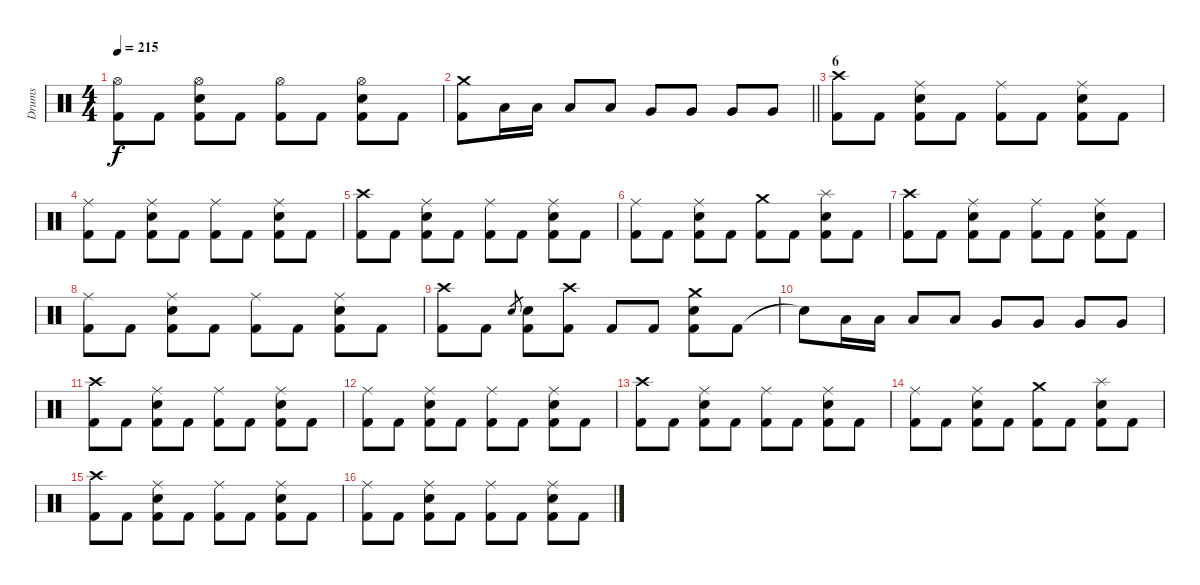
\track ("Drums" "Drums") {instrument percussion}
\staff {score}
\articulation defaults
\ts (4 4)
\tempo 215
\clef neutral
\ks c
("Hi-Hat (open)" "Kick (hit) 2").8{dy f} "Kick (hit) 2".8 ("Hi-Hat (open)" "Electric Snare (hit)" "Kick (hit) 2").8 "Kick (hit) 2".8 ("Hi-Hat (open)" "Kick (hit) 2").8 "Kick (hit) 2".8 ("Hi-Hat (open)" "Electric Snare (hit)" "Kick (hit) 2").8 "Kick (hit) 2".8 |
\barLineRight lightlight
("Crash medium (hit)" "Kick (hit) 2").8 "Low Tom (hit)".16 "Low Tom (hit)".16 "Low Tom (hit)".8 "Low Tom (hit)".8 "Very Low Tom (hit)".8 "Very Low Tom (hit)".8 "Very Low Tom (hit)".8 "Very Low Tom (hit)".8 |
\section ("" "6")
("Crash high (hit)" "Kick (hit) 2").8 "Kick (hit) 2".8 ("Ride (middle)" "Electric Snare (hit)" "Kick (hit) 2").8 "Kick (hit) 2".8 ("Ride (middle)" "Kick (hit) 2").8 "Kick (hit) 2".8 ("Ride (middle)" "Electric Snare (hit)" "Kick (hit) 2").8 "Kick (hit) 2".8 |
("Ride (middle)" "Kick (hit) 2").8 "Kick (hit) 2".8 ("Ride (middle)" "Electric Snare (hit)" "Kick (hit) 2").8 "Kick (hit) 2".8 ("Ride (middle)" "Kick (hit) 2").8 "Kick (hit) 2".8 ("Ride (middle)" "Electric Snare (hit)" "Kick (hit) 2").8 "Kick (hit) 2".8 |
("Crash high (hit)" "Kick (hit) 2").8 "Kick (hit) 2".8 ("Ride (middle)" "Electric Snare (hit)" "Kick (hit) 2").8 "Kick (hit) 2".8 ("Ride (middle)" "Kick (hit) 2").8 "Kick (hit) 2".8 ("Ride (middle)" "Electric Snare (hit)" "Kick (hit) 2").8 "Kick (hit) 2".8 |
("Ride (middle)" "Kick (hit) 2").8 "Kick (hit) 2".8 ("Ride (middle)" "Electric Snare (hit)" "Kick (hit) 2").8 "Kick (hit) 2".8 ("Crash medium (hit)" "Kick (hit) 2").8 "Kick (hit) 2".8 ("Splash (hit)" "Electric Snare (hit)" "Kick (hit) 2").8 "Kick (hit) 2".8 |
("Crash high (hit)" "Kick (hit) 2").8 "Kick (hit) 2".8 ("Ride (middle)" "Electric Snare (hit)" "Kick (hit) 2").8 "Kick (hit) 2".8 ("Ride (middle)" "Kick (hit) 2").8 "Kick (hit) 2".8 ("Ride (middle)" "Electric Snare (hit)" "Kick (hit) 2").8 "Kick (hit) 2".8 |
("Ride (middle)" "Kick (hit) 2").8 "Kick (hit) 2".8 ("Ride (middle)" "Electric Snare (hit)" "Kick (hit) 2").8 "Kick (hit) 2".8 ("Ride (middle)" "Kick (hit) 2").8 "Kick (hit) 2".8 ("Ride (middle)" "Electric Snare (hit)" "Kick (hit) 2").8 "Kick (hit) 2".8 |
("Crash high (hit)" "Kick (hit) 2").8 "Kick (hit) 2".8 "Electric Snare (hit)".8{gr} ("Electric Snare (hit)" "Kick (hit) 2").8 ("Crash high (hit)" "Kick (hit) 2").8 "Kick (hit) 2".8 "Kick (hit) 2".8 ("Crash medium (hit)" "Electric Snare (hit)" "Kick (hit) 2").8 "Kick (hit) 2".8 |
"Snare (hit)"{t}.8 "Low Tom (hit)".16 "Low Tom (hit)".16 "Low Tom (hit)".8 "Low Tom (hit)".8 "Very Low Tom (hit)".8 "Very Low Tom (hit)".8 "Very Low Tom (hit)".8 "Very Low Tom (hit)".8 |
("Crash high (hit)" "Kick (hit) 2").8 "Kick (hit) 2".8 ("Ride (middle)" "Electric Snare (hit)" "Kick (hit) 2").8 "Kick (hit) 2".8 ("Ride (middle)" "Kick (hit) 2").8 "Kick (hit) 2".8 ("Ride (middle)" "Electric Snare (hit)" "Kick (hit) 2").8 "Kick (hit) 2".8 |
("Ride (middle)" "Kick (hit) 2").8 "Kick (hit) 2".8 ("Ride (middle)" "Electric Snare (hit)" "Kick (hit) 2").8 "Kick (hit) 2".8 ("Ride (middle)" "Kick (hit) 2").8 "Kick (hit) 2".8 ("Ride (middle)" "Electric Snare (hit)" "Kick (hit) 2").8 "Kick (hit) 2".8 |
("Crash high (hit)" "Kick (hit) 2").8 "Kick (hit) 2".8 ("Ride (middle)" "Electric Snare (hit)" "Kick (hit) 2").8 "Kick (hit) 2".8 ("Ride (middle)" "Kick (hit) 2").8 "Kick (hit) 2".8 ("Ride (middle)" "Electric Snare (hit)" "Kick (hit) 2").8 "Kick (hit) 2".8 |
("Ride (middle)" "Kick (hit) 2").8 "Kick (hit) 2".8 ("Ride (middle)" "Electric Snare (hit)" "Kick (hit) 2").8 "Kick (hit) 2".8 ("Crash medium (hit)" "Kick (hit) 2").8 "Kick (hit) 2".8 ("Splash (hit)" "Electric Snare (hit)" "Kick (hit) 2").8 "Kick (hit) 2".8 |
("Crash high (hit)" "Kick (hit) 2").8 "Kick (hit) 2".8 ("Ride (middle)" "Electric Snare (hit)" "Kick (hit) 2").8 "Kick (hit) 2".8 ("Ride (middle)" "Kick (hit) 2").8 "Kick (hit) 2".8 ("Ride (middle)" "Electric Snare (hit)" "Kick (hit) 2").8 "Kick (hit) 2".8 |
("Ride (middle)" "Kick (hit) 2").8 "Kick (hit) 2".8 ("Ride (middle)" "Electric Snare (hit)" "Kick (hit) 2").8 "Kick (hit) 2".8 ("Ride (middle)" "Kick (hit) 2").8 "Kick (hit) 2".8 ("Ride (middle)" "Electric Snare (hit)" "Kick (hit) 2").8 "Kick (hit) 2".8
